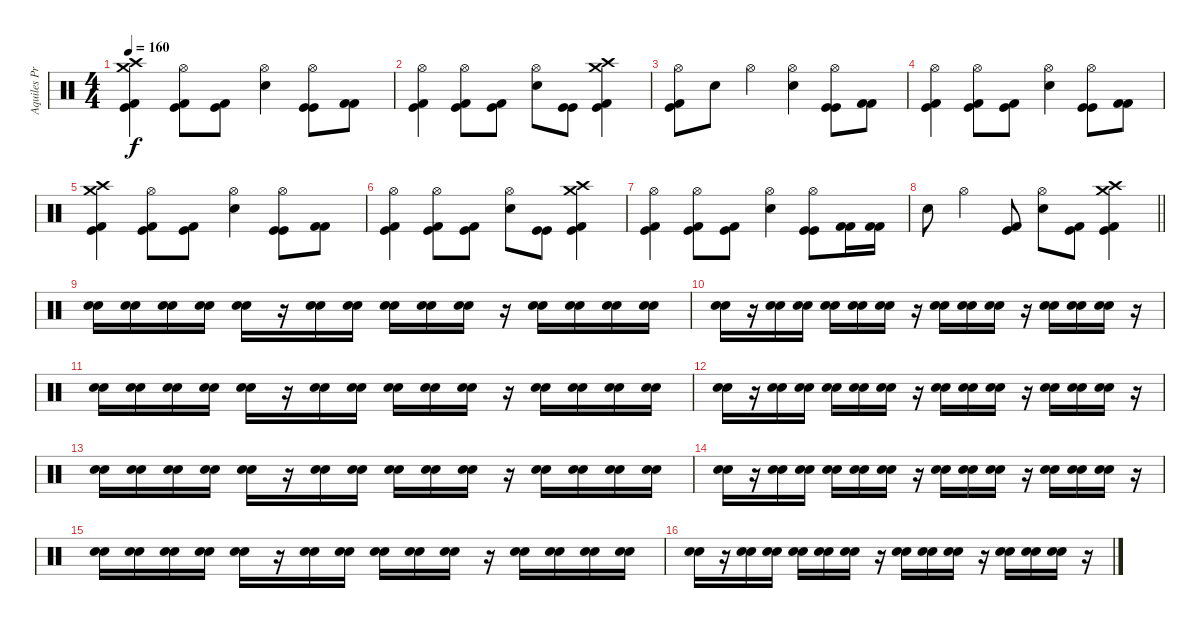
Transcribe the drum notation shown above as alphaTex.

\track ("Aquiles Priester" "Aquiles Pr") {instrument percussion}
\staff {score}
\articulation defaults
\ts (4 4)
\tempo 160
\clef neutral
\ks c
("Crash medium (hit)" "Crash high (hit)" "Kick (hit) 2" "Kick (hit)").4{dy f} ("Hi-Hat (open)" "Kick (hit) 2" "Kick (hit)").8 ("Kick (hit) 2" "Kick (hit)").8 ("Hi-Hat (open)" "Electric Snare (hit)").4 ("Hi-Hat (open)" "Kick (hit)" "Kick (hit)").8 ("Kick (hit) 2" "Kick (hit) 2").8 |
("Hi-Hat (open)" "Kick (hit) 2" "Kick (hit)").4 ("Hi-Hat (open)" "Kick (hit) 2" "Kick (hit)").8 ("Kick (hit) 2" "Kick (hit)").8 ("Hi-Hat (open)" "Electric Snare (hit)").8 ("Kick (hit)" "Kick (hit)").8 ("Crash medium (hit)" "Crash high (hit)" "Kick (hit) 2" "Kick (hit)").4 |
("Hi-Hat (open)" "Kick (hit) 2" "Kick (hit)").8 "Electric Snare (hit)".8 "Hi-Hat (open)".4 ("Hi-Hat (open)" "Electric Snare (hit)").4 ("Hi-Hat (open)" "Kick (hit)" "Kick (hit)").8 ("Kick (hit) 2" "Kick (hit) 2").8 |
("Hi-Hat (open)" "Kick (hit) 2" "Kick (hit)").4 ("Hi-Hat (open)" "Kick (hit) 2" "Kick (hit)").8 ("Kick (hit) 2" "Kick (hit)").8 ("Hi-Hat (open)" "Electric Snare (hit)").4 ("Hi-Hat (open)" "Kick (hit)" "Kick (hit)").8 ("Kick (hit) 2" "Kick (hit) 2").8 |
("Crash medium (hit)" "Crash high (hit)" "Kick (hit) 2" "Kick (hit)").4 ("Hi-Hat (open)" "Kick (hit) 2" "Kick (hit)").8 ("Kick (hit) 2" "Kick (hit)").8 ("Hi-Hat (open)" "Electric Snare (hit)").4 ("Hi-Hat (open)" "Kick (hit)" "Kick (hit)").8 ("Kick (hit) 2" "Kick (hit) 2").8 |
("Hi-Hat (open)" "Kick (hit) 2" "Kick (hit)").4 ("Hi-Hat (open)" "Kick (hit) 2" "Kick (hit)").8 ("Kick (hit) 2" "Kick (hit)").8 ("Hi-Hat (open)" "Electric Snare (hit)").8 ("Kick (hit)" "Kick (hit)").8 ("Crash medium (hit)" "Crash high (hit)" "Kick (hit) 2" "Kick (hit)").4 |
("Hi-Hat (open)" "Kick (hit) 2" "Kick (hit)").4 ("Hi-Hat (open)" "Kick (hit) 2" "Kick (hit)").8 ("Kick (hit) 2" "Kick (hit)").8 ("Hi-Hat (open)" "Electric Snare (hit)").4 ("Hi-Hat (open)" "Kick (hit)" "Kick (hit)").8 ("Kick (hit) 2" "Kick (hit) 2").16 ("Kick (hit) 2" "Kick (hit) 2").16 |
\barLineRight lightlight "Electric Snare (hit)".8 "Hi-Hat (open)".4
("Kick (hit)" "Kick (hit) 2").8 ("Hi-Hat (open)" "Electric Snare (hit)").8 ("Kick (hit)" "Kick (hit) 2").8 ("Crash medium (hit)" "Crash high (hit)" "Kick (hit)" "Kick (hit) 2").4 |
("Electric Snare (hit)" "Electric Snare (hit)").16 ("Electric Snare (hit)" "Electric Snare (hit)").16 ("Electric Snare (hit)" "Electric Snare (hit)").16 ("Electric Snare (hit)" "Electric Snare (hit)").16 ("Electric Snare (hit)" "Electric Snare (hit)").16 r.16 ("Electric Snare (hit)" "Electric Snare (hit)").16 ("Electric Snare (hit)" "Electric Snare (hit)").16 ("Electric Snare (hit)" "Electric Snare (hit)").16 ("Electric Snare (hit)" "Electric Snare (hit)").16 ("Electric Snare (hit)" "Electric Snare (hit)").16 r.16 ("Electric Snare (hit)" "Electric Snare (hit)").16 ("Electric Snare (hit)" "Electric Snare (hit)").16 ("Electric Snare (hit)" "Electric Snare (hit)").16 ("Electric Snare (hit)" "Electric Snare (hit)").16 |
("Electric Snare (hit)" "Electric Snare (hit)").16 r.16 ("Electric Snare (hit)" "Electric Snare (hit)").16 ("Electric Snare (hit)" "Electric Snare (hit)").16 ("Electric Snare (hit)" "Electric Snare (hit)").16 ("Electric Snare (hit)" "Electric Snare (hit)").16 ("Electric Snare (hit)" "Electric Snare (hit)").16 r.16 ("Electric Snare (hit)" "Electric Snare (hit)").16 ("Electric Snare (hit)" "Electric Snare (hit)").16 ("Electric Snare (hit)" "Electric Snare (hit)").16 r.16 ("Electric Snare (hit)" "Electric Snare (hit)").16 ("Electric Snare (hit)" "Electric Snare (hit)").16 ("Electric Snare (hit)" "Electric Snare (hit)").16 r.16 |
("Electric Snare (hit)" "Electric Snare (hit)").16 ("Electric Snare (hit)" "Electric Snare (hit)").16 ("Electric Snare (hit)" "Electric Snare (hit)").16 ("Electric Snare (hit)" "Electric Snare (hit)").16 ("Electric Snare (hit)" "Electric Snare (hit)").16 r.16 ("Electric Snare (hit)" "Electric Snare (hit)").16 ("Electric Snare (hit)" "Electric Snare (hit)").16 ("Electric Snare (hit)" "Electric Snare (hit)").16 ("Electric Snare (hit)" "Electric Snare (hit)").16 ("Electric Snare (hit)" "Electric Snare (hit)").16 r.16 ("Electric Snare (hit)" "Electric Snare (hit)").16 ("Electric Snare (hit)" "Electric Snare (hit)").16 ("Electric Snare (hit)" "Electric Snare (hit)").16 ("Electric Snare (hit)" "Electric Snare (hit)").16 |
("Electric Snare (hit)" "Electric Snare (hit)").16 r.16 ("Electric Snare (hit)" "Electric Snare (hit)").16 ("Electric Snare (hit)" "Electric Snare (hit)").16 ("Electric Snare (hit)" "Electric Snare (hit)").16 ("Electric Snare (hit)" "Electric Snare (hit)").16 ("Electric Snare (hit)" "Electric Snare (hit)").16 r.16 ("Electric Snare (hit)" "Electric Snare (hit)").16 ("Electric Snare (hit)" "Electric Snare (hit)").16 ("Electric Snare (hit)" "Electric Snare (hit)").16 r.16 ("Electric Snare (hit)" "Electric Snare (hit)").16 ("Electric Snare (hit)" "Electric Snare (hit)").16 ("Electric Snare (hit)" "Electric Snare (hit)").16 r.16 |
("Electric Snare (hit)" "Electric Snare (hit)").16 ("Electric Snare (hit)" "Electric Snare (hit)").16 ("Electric Snare (hit)" "Electric Snare (hit)").16 ("Electric Snare (hit)" "Electric Snare (hit)").16 ("Electric Snare (hit)" "Electric Snare (hit)").16 r.16 ("Electric Snare (hit)" "Electric Snare (hit)").16 ("Electric Snare (hit)" "Electric Snare (hit)").16 ("Electric Snare (hit)" "Electric Snare (hit)").16 ("Electric Snare (hit)" "Electric Snare (hit)").16 ("Electric Snare (hit)" "Electric Snare (hit)").16 r.16 ("Electric Snare (hit)" "Electric Snare (hit)").16 ("Electric Snare (hit)" "Electric Snare (hit)").16 ("Electric Snare (hit)" "Electric Snare (hit)").16 ("Electric Snare (hit)" "Electric Snare (hit)").16 |
("Electric Snare (hit)" "Electric Snare (hit)").16 r.16 ("Electric Snare (hit)" "Electric Snare (hit)").16 ("Electric Snare (hit)" "Electric Snare (hit)").16 ("Electric Snare (hit)" "Electric Snare (hit)").16 ("Electric Snare (hit)" "Electric Snare (hit)").16 ("Electric Snare (hit)" "Electric Snare (hit)").16 r.16 ("Electric Snare (hit)" "Electric Snare (hit)").16 ("Electric Snare (hit)" "Electric Snare (hit)").16 ("Electric Snare (hit)" "Electric Snare (hit)").16 r.16 ("Electric Snare (hit)" "Electric Snare (hit)").16 ("Electric Snare (hit)" "Electric Snare (hit)").16 ("Electric Snare (hit)" "Electric Snare (hit)").16 r.16 |
("Electric Snare (hit)" "Electric Snare (hit)").16 ("Electric Snare (hit)" "Electric Snare (hit)").16 ("Electric Snare (hit)" "Electric Snare (hit)").16 ("Electric Snare (hit)" "Electric Snare (hit)").16 ("Electric Snare (hit)" "Electric Snare (hit)").16 r.16 ("Electric Snare (hit)" "Electric Snare (hit)").16 ("Electric Snare (hit)" "Electric Snare (hit)").16 ("Electric Snare (hit)" "Electric Snare (hit)").16 ("Electric Snare (hit)" "Electric Snare (hit)").16 ("Electric Snare (hit)" "Electric Snare (hit)").16 r.16 ("Electric Snare (hit)" "Electric Snare (hit)").16 ("Electric Snare (hit)" "Electric Snare (hit)").16 ("Electric Snare (hit)" "Electric Snare (hit)").16 ("Electric Snare (hit)" "Electric Snare (hit)").16 |
("Electric Snare (hit)" "Electric Snare (hit)").16 r.16 ("Electric Snare (hit)" "Electric Snare (hit)").16 ("Electric Snare (hit)" "Electric Snare (hit)").16 ("Electric Snare (hit)" "Electric Snare (hit)").16 ("Electric Snare (hit)" "Electric Snare (hit)").16 ("Electric Snare (hit)" "Electric Snare (hit)").16 r.16 ("Electric Snare (hit)" "Electric Snare (hit)").16 ("Electric Snare (hit)" "Electric Snare (hit)").16 ("Electric Snare (hit)" "Electric Snare (hit)").16 r.16 ("Electric Snare (hit)" "Electric Snare (hit)").16 ("Electric Snare (hit)" "Electric Snare (hit)").16 ("Electric Snare (hit)" "Electric Snare (hit)").16 r.16
